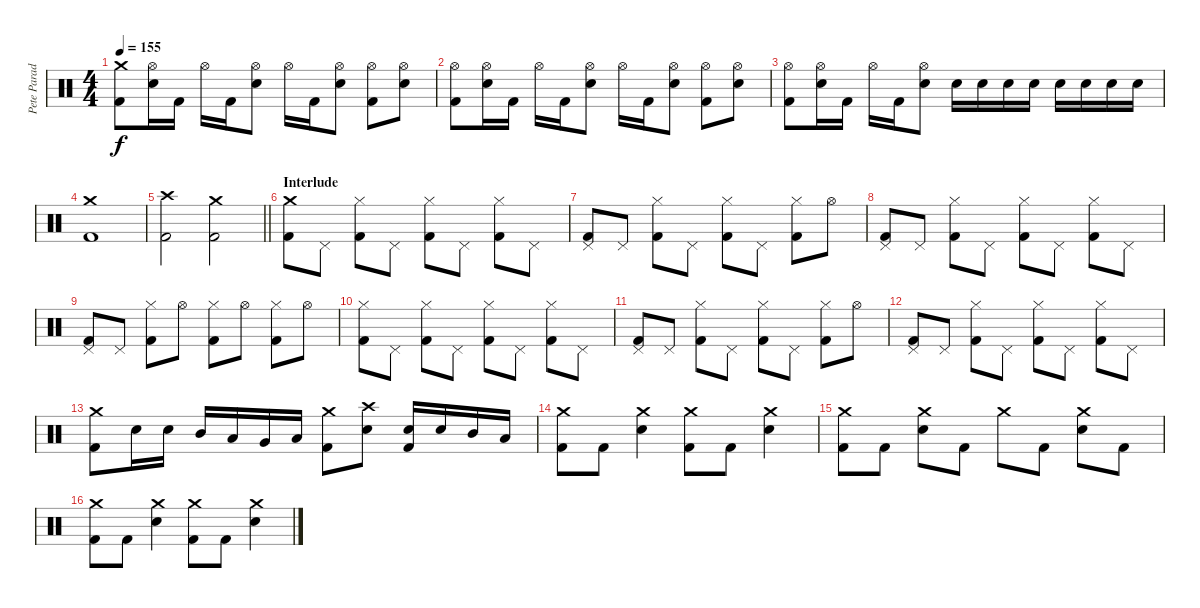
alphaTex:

\track ("Pete Parada - Drums" "Pete Parad") {instrument percussion}
\staff {score}
\articulation defaults
\ts (4 4)
\tempo 155
\clef neutral
\ks c
("Crash medium (hit)" "Kick (hit) 2").8{dy f} ("Hi-Hat (open)" "Electric Snare (hit)").16 "Kick (hit) 2".16 "Hi-Hat (open)".16 "Kick (hit) 2".16 ("Hi-Hat (open)" "Electric Snare (hit)").8 "Hi-Hat (open)".16 "Kick (hit) 2".16 ("Hi-Hat (open)" "Electric Snare (hit)").8 ("Hi-Hat (open)" "Kick (hit) 2").8 ("Hi-Hat (open)" "Electric Snare (hit)").8 |
("Hi-Hat (open)" "Kick (hit) 2").8 ("Hi-Hat (open)" "Electric Snare (hit)").16 "Kick (hit) 2".16 "Hi-Hat (open)".16 "Kick (hit) 2".16 ("Hi-Hat (open)" "Electric Snare (hit)").8 "Hi-Hat (open)".16 "Kick (hit) 2".16 ("Hi-Hat (open)" "Electric Snare (hit)").8 ("Hi-Hat (open)" "Kick (hit) 2").8 ("Hi-Hat (open)" "Electric Snare (hit)").8 |
("Hi-Hat (open)" "Kick (hit) 2").8 ("Hi-Hat (open)" "Electric Snare (hit)").16 "Kick (hit) 2".16 "Hi-Hat (open)".16 "Kick (hit) 2".16 ("Hi-Hat (open)" "Electric Snare (hit)").8 "Electric Snare (hit)".16 "Electric Snare (hit)".16 "Electric Snare (hit)".16 "Electric Snare (hit)".16 "Electric Snare (hit)".16 "Electric Snare (hit)".16 "Electric Snare (hit)".16 "Electric Snare (hit)".16 |
("Crash medium (hit)" "Kick (hit) 2").1 |
\barLineRight lightlight
("Kick (hit) 2" "Crash high (hit)").2 ("Kick (hit) 2" "Crash medium (hit)").2 |
\section ("" "Interlude")
("Crash medium (hit)" "Kick (hit) 2").8 "Pedal Hi-Hat (hit)".8 ("Hi-Hat (closed)" "Kick (hit) 2").8 "Pedal Hi-Hat (hit)".8 ("Hi-Hat (closed)" "Kick (hit) 2").8 "Pedal Hi-Hat (hit)".8 ("Hi-Hat (closed)" "Kick (hit) 2").8 "Pedal Hi-Hat (hit)".8 |
("Pedal Hi-Hat (hit)" "Kick (hit) 2").8 "Pedal Hi-Hat (hit)".8 ("Hi-Hat (closed)" "Kick (hit) 2").8 "Pedal Hi-Hat (hit)".8 ("Hi-Hat (closed)" "Kick (hit) 2").8 "Pedal Hi-Hat (hit)".8 ("Hi-Hat (closed)" "Kick (hit) 2").8 "Hi-Hat (open)".8 |
("Pedal Hi-Hat (hit)" "Kick (hit) 2").8 "Pedal Hi-Hat (hit)".8 ("Hi-Hat (closed)" "Kick (hit) 2").8 "Pedal Hi-Hat (hit)".8 ("Hi-Hat (closed)" "Kick (hit) 2").8 "Pedal Hi-Hat (hit)".8 ("Hi-Hat (closed)" "Kick (hit) 2").8 "Pedal Hi-Hat (hit)".8 |
("Pedal Hi-Hat (hit)" "Kick (hit) 2").8 "Pedal Hi-Hat (hit)".8 ("Hi-Hat (closed)" "Kick (hit) 2").8 "Hi-Hat (open)".8 ("Hi-Hat (closed)" "Kick (hit) 2").8 "Hi-Hat (open)".8 ("Hi-Hat (closed)" "Kick (hit) 2").8 "Hi-Hat (open)".8 |
("Hi-Hat (closed)" "Kick (hit) 2").8 "Pedal Hi-Hat (hit)".8 ("Hi-Hat (closed)" "Kick (hit) 2").8 "Pedal Hi-Hat (hit)".8 ("Hi-Hat (closed)" "Kick (hit) 2").8 "Pedal Hi-Hat (hit)".8 ("Hi-Hat (closed)" "Kick (hit) 2").8 "Pedal Hi-Hat (hit)".8 |
("Pedal Hi-Hat (hit)" "Kick (hit) 2").8 "Pedal Hi-Hat (hit)".8 ("Hi-Hat (closed)" "Kick (hit) 2").8 "Pedal Hi-Hat (hit)".8 ("Hi-Hat (closed)" "Kick (hit) 2").8 "Pedal Hi-Hat (hit)".8 ("Hi-Hat (closed)" "Kick (hit) 2").8 "Hi-Hat (open)".8 |
("Pedal Hi-Hat (hit)" "Kick (hit) 2").8 "Pedal Hi-Hat (hit)".8 ("Hi-Hat (closed)" "Kick (hit) 2").8 "Pedal Hi-Hat (hit)".8 ("Hi-Hat (closed)" "Kick (hit) 2").8 "Pedal Hi-Hat (hit)".8 ("Hi-Hat (closed)" "Kick (hit) 2").8 "Pedal Hi-Hat (hit)".8 |
("Crash medium (hit)" "Kick (hit) 2").8 "Electric Snare (hit)".16 "Electric Snare (hit)".16 "Mid Tom (hit)".16 "Low Tom (hit)".16 "Very Low Tom (hit)".16 "Low Floor Tom (hit)".16 ("Crash medium (hit)" "Kick (hit) 2").8 ("Crash high (hit)" "Electric Snare (hit)").8 ("Electric Snare (hit)" "Kick (hit) 2").16 "Electric Snare (hit)".16 "Mid Tom (hit)".16 "Low Tom (hit)".16 |
("Crash medium (hit)" "Kick (hit) 2").8 "Kick (hit) 2".8 ("Crash medium (hit)" "Electric Snare (hit)").4 ("Crash medium (hit)" "Kick (hit) 2").8 "Kick (hit) 2".8 ("Crash medium (hit)" "Electric Snare (hit)").4 |
("Crash medium (hit)" "Kick (hit) 2").8 "Kick (hit) 2".8 ("Crash medium (hit)" "Electric Snare (hit)").8 "Kick (hit) 2".8 "Crash medium (hit)".8 "Kick (hit) 2".8 ("Crash medium (hit)" "Electric Snare (hit)").8 "Kick (hit) 2".8 |
("Crash medium (hit)" "Kick (hit) 2").8 "Kick (hit) 2".8 ("Crash medium (hit)" "Electric Snare (hit)").4 ("Crash medium (hit)" "Kick (hit) 2").8 "Kick (hit) 2".8 ("Crash medium (hit)" "Electric Snare (hit)").4
